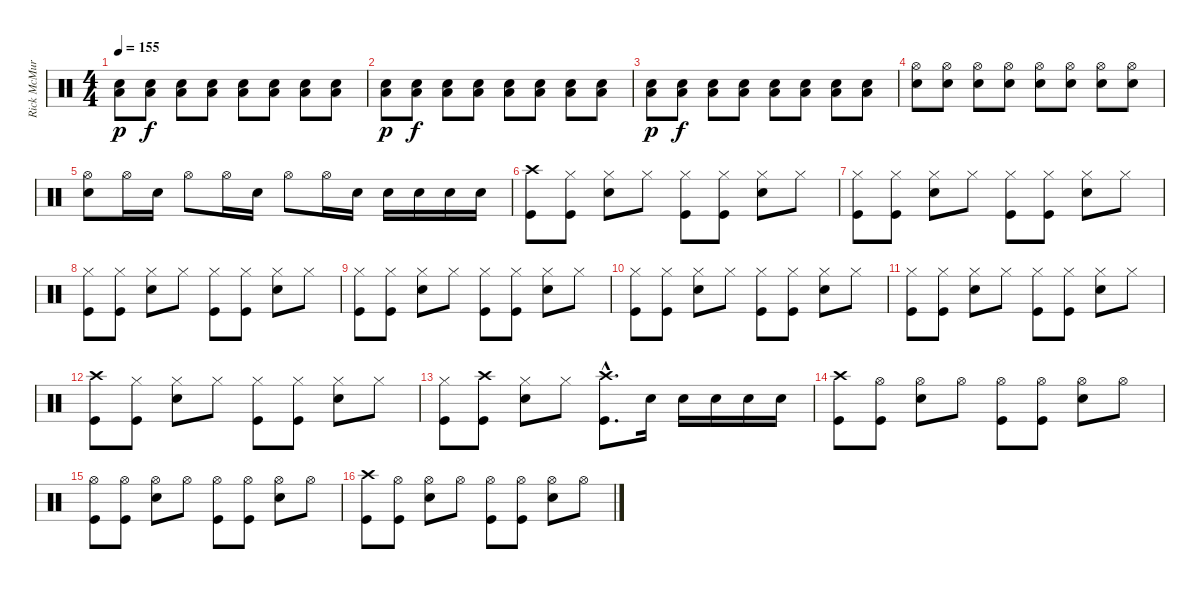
\track ("Rick McMurray" "Rick McMur") {instrument percussion}
\staff {score}
\articulation defaults
\ts (4 4)
\tempo 155
\clef neutral
\ks c
("Low Tom (hit)" "Snare (hit) 2").8{dy p} ("Low Tom (hit)" "Snare (hit) 2").8{dy f} ("Low Tom (hit)" "Snare (hit) 2").8 ("Low Tom (hit)" "Snare (hit) 2").8 ("Low Tom (hit)" "Snare (hit) 2").8 ("Low Tom (hit)" "Snare (hit) 2").8 ("Low Tom (hit)" "Snare (hit) 2").8 ("Low Tom (hit)" "Snare (hit) 2").8 |
("Low Tom (hit)" "Snare (hit) 2").8{dy p} ("Low Tom (hit)" "Snare (hit) 2").8{dy f} ("Low Tom (hit)" "Snare (hit) 2").8 ("Low Tom (hit)" "Snare (hit) 2").8 ("Low Tom (hit)" "Snare (hit) 2").8 ("Low Tom (hit)" "Snare (hit) 2").8 ("Low Tom (hit)" "Snare (hit) 2").8 ("Low Tom (hit)" "Snare (hit) 2").8 |
("Low Tom (hit)" "Snare (hit) 2").8{dy p} ("Low Tom (hit)" "Snare (hit) 2").8{dy f} ("Low Tom (hit)" "Snare (hit) 2").8 ("Low Tom (hit)" "Snare (hit) 2").8 ("Low Tom (hit)" "Snare (hit) 2").8 ("Low Tom (hit)" "Snare (hit) 2").8 ("Low Tom (hit)" "Snare (hit) 2").8 ("Low Tom (hit)" "Snare (hit) 2").8 |
("Hi-Hat (open)" "Snare (hit) 2").8 ("Hi-Hat (open)" "Snare (hit) 2").8 ("Hi-Hat (open)" "Snare (hit) 2").8 ("Hi-Hat (open)" "Snare (hit) 2").8 ("Hi-Hat (open)" "Snare (hit) 2").8 ("Hi-Hat (open)" "Snare (hit) 2").8 ("Hi-Hat (open)" "Snare (hit) 2").8 ("Hi-Hat (open)" "Snare (hit) 2").8 |
("Hi-Hat (open)" "Snare (hit) 2").8 "Hi-Hat (open)".16 "Snare (hit) 2".16 "Hi-Hat (open)".8 "Hi-Hat (open)".16 "Snare (hit) 2".16 "Hi-Hat (open)".8 "Hi-Hat (open)".16 "Snare (hit) 2".16 "Snare (hit) 2".16 "Snare (hit) 2".16 "Snare (hit) 2".16 "Snare (hit) 2".16 |
("Crash high (hit)" "Kick (hit)").8 ("Hi-Hat (closed)" "Kick (hit)").8 ("Hi-Hat (closed)" "Snare (hit) 2").8 "Hi-Hat (closed)".8 ("Hi-Hat (closed)" "Kick (hit)").8 ("Hi-Hat (closed)" "Kick (hit)").8 ("Hi-Hat (closed)" "Snare (hit) 2").8 "Hi-Hat (closed)".8 |
("Hi-Hat (closed)" "Kick (hit)").8 ("Hi-Hat (closed)" "Kick (hit)").8 ("Hi-Hat (closed)" "Snare (hit) 2").8 "Hi-Hat (closed)".8 ("Hi-Hat (closed)" "Kick (hit)").8 ("Hi-Hat (closed)" "Kick (hit)").8 ("Hi-Hat (closed)" "Snare (hit) 2").8 "Hi-Hat (closed)".8 |
("Hi-Hat (closed)" "Kick (hit)").8 ("Hi-Hat (closed)" "Kick (hit)").8 ("Hi-Hat (closed)" "Snare (hit) 2").8 "Hi-Hat (closed)".8 ("Hi-Hat (closed)" "Kick (hit)").8 ("Hi-Hat (closed)" "Kick (hit)").8 ("Hi-Hat (closed)" "Snare (hit) 2").8 "Hi-Hat (closed)".8 |
("Hi-Hat (closed)" "Kick (hit)").8 ("Hi-Hat (closed)" "Kick (hit)").8 ("Hi-Hat (closed)" "Snare (hit) 2").8 "Hi-Hat (closed)".8 ("Hi-Hat (closed)" "Kick (hit)").8 ("Hi-Hat (closed)" "Kick (hit)").8 ("Hi-Hat (closed)" "Snare (hit) 2").8 "Hi-Hat (closed)".8 |
("Hi-Hat (closed)" "Kick (hit)").8 ("Hi-Hat (closed)" "Kick (hit)").8 ("Hi-Hat (closed)" "Snare (hit) 2").8 "Hi-Hat (closed)".8 ("Hi-Hat (closed)" "Kick (hit)").8 ("Hi-Hat (closed)" "Kick (hit)").8 ("Hi-Hat (closed)" "Snare (hit) 2").8 "Hi-Hat (closed)".8 |
("Hi-Hat (closed)" "Kick (hit)").8 ("Hi-Hat (closed)" "Kick (hit)").8 ("Hi-Hat (closed)" "Snare (hit) 2").8 "Hi-Hat (closed)".8 ("Hi-Hat (closed)" "Kick (hit)").8 ("Hi-Hat (closed)" "Kick (hit)").8 ("Hi-Hat (closed)" "Snare (hit) 2").8 "Hi-Hat (closed)".8 |
("Crash high (hit)" "Kick (hit)").8 ("Hi-Hat (closed)" "Kick (hit)").8 ("Hi-Hat (closed)" "Snare (hit) 2").8 "Hi-Hat (closed)".8 ("Hi-Hat (closed)" "Kick (hit)").8 ("Hi-Hat (closed)" "Kick (hit)").8 ("Hi-Hat (closed)" "Snare (hit) 2").8 "Hi-Hat (closed)".8 |
("Hi-Hat (closed)" "Kick (hit)").8 ("Crash high (hit)" "Kick (hit)").8 ("Hi-Hat (closed)" "Snare (hit) 2").8 "Hi-Hat (closed)".8 ("Crash high (hit)"{hac} "Kick (hit)"{hac}).8{d} "Snare (hit) 2".16 "Snare (hit) 2".16 "Snare (hit) 2".16 "Snare (hit) 2".16 "Snare (hit) 2".16 |
("Crash high (hit)" "Kick (hit)").8 ("Hi-Hat (open)" "Kick (hit)").8 ("Hi-Hat (open)" "Snare (hit) 2").8 "Hi-Hat (open)".8 ("Hi-Hat (open)" "Kick (hit)").8 ("Hi-Hat (open)" "Kick (hit)").8 ("Hi-Hat (open)" "Snare (hit) 2").8 "Hi-Hat (open)".8 |
("Hi-Hat (open)" "Kick (hit)").8 ("Hi-Hat (open)" "Kick (hit)").8 ("Hi-Hat (open)" "Snare (hit) 2").8 "Hi-Hat (open)".8 ("Hi-Hat (open)" "Kick (hit)").8 ("Hi-Hat (open)" "Kick (hit)").8 ("Hi-Hat (open)" "Snare (hit) 2").8 "Hi-Hat (open)".8 |
("Crash high (hit)" "Kick (hit)").8 ("Hi-Hat (open)" "Kick (hit)").8 ("Hi-Hat (open)" "Snare (hit) 2").8 "Hi-Hat (open)".8 ("Hi-Hat (open)" "Kick (hit)").8 ("Hi-Hat (open)" "Kick (hit)").8 ("Hi-Hat (open)" "Snare (hit) 2").8 "Hi-Hat (open)".8
